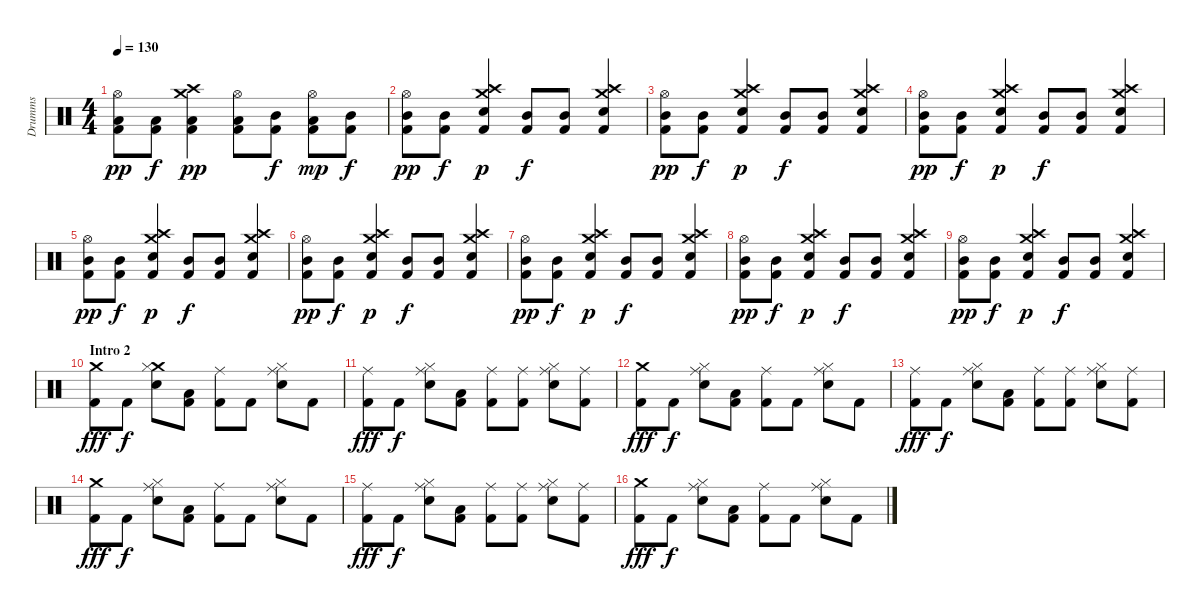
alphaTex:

\track ("Drumms" "Drumms") {instrument percussion}
\staff {score}
\articulation defaults
\ts (4 4)
\tempo 130
\clef neutral
\ks c
("Hi-Hat (open)" "Kick (hit) 2" "Low Tom (hit)").8{dy pp} ("Kick (hit) 2" "Low Tom (hit)").8{dy f} ("Crash medium (hit)" "Crash high (hit)" "Kick (hit) 2" "Low Tom (hit)").4{dy pp} ("Hi-Hat (open)" "Kick (hit) 2" "Low Tom (hit)").8 ("Kick (hit) 2" "Mid Tom (hit)").8{dy f} ("Hi-Hat (open)" "Kick (hit) 2" "Low Tom (hit)").8{dy mp} ("Kick (hit) 2" "Mid Tom (hit)").8{dy f} |
("Hi-Hat (open)" "Kick (hit) 2" "Mid Tom (hit)").8{dy pp} ("Kick (hit) 2" "Mid Tom (hit)").8{dy f} ("Crash medium (hit)" "Crash high (hit)" "Electric Snare (hit)" "Kick (hit) 2").4{dy p} ("Kick (hit) 2" "Mid Tom (hit)").8{dy f} ("Mid Tom (hit)" "Kick (hit) 2").8 ("Crash medium (hit)" "Crash high (hit)" "Electric Snare (hit)" "Kick (hit) 2").4 |
("Hi-Hat (open)" "Kick (hit) 2" "Mid Tom (hit)").8{dy pp} ("Kick (hit) 2" "Mid Tom (hit)").8{dy f} ("Crash medium (hit)" "Crash high (hit)" "Electric Snare (hit)" "Kick (hit) 2").4{dy p} ("Kick (hit) 2" "Mid Tom (hit)").8{dy f} ("Mid Tom (hit)" "Kick (hit) 2").8 ("Crash medium (hit)" "Crash high (hit)" "Electric Snare (hit)" "Kick (hit) 2").4 |
("Hi-Hat (open)" "Kick (hit) 2" "Mid Tom (hit)").8{dy pp} ("Kick (hit) 2" "Mid Tom (hit)").8{dy f} ("Crash medium (hit)" "Crash high (hit)" "Electric Snare (hit)" "Kick (hit) 2").4{dy p} ("Kick (hit) 2" "Mid Tom (hit)").8{dy f} ("Mid Tom (hit)" "Kick (hit) 2").8 ("Crash medium (hit)" "Crash high (hit)" "Electric Snare (hit)" "Kick (hit) 2").4 |
("Hi-Hat (open)" "Kick (hit) 2" "Mid Tom (hit)").8{dy pp} ("Kick (hit) 2" "Mid Tom (hit)").8{dy f} ("Crash medium (hit)" "Crash high (hit)" "Electric Snare (hit)" "Kick (hit) 2").4{dy p} ("Kick (hit) 2" "Mid Tom (hit)").8{dy f} ("Mid Tom (hit)" "Kick (hit) 2").8 ("Crash medium (hit)" "Crash high (hit)" "Electric Snare (hit)" "Kick (hit) 2").4 |
("Hi-Hat (open)" "Kick (hit) 2" "Mid Tom (hit)").8{dy pp} ("Kick (hit) 2" "Mid Tom (hit)").8{dy f} ("Crash medium (hit)" "Crash high (hit)" "Electric Snare (hit)" "Kick (hit) 2").4{dy p} ("Kick (hit) 2" "Mid Tom (hit)").8{dy f} ("Mid Tom (hit)" "Kick (hit) 2").8 ("Crash medium (hit)" "Crash high (hit)" "Electric Snare (hit)" "Kick (hit) 2").4 |
("Hi-Hat (open)" "Kick (hit) 2" "Mid Tom (hit)").8{dy pp} ("Kick (hit) 2" "Mid Tom (hit)").8{dy f} ("Crash medium (hit)" "Crash high (hit)" "Electric Snare (hit)" "Kick (hit) 2").4{dy p} ("Kick (hit) 2" "Mid Tom (hit)").8{dy f} ("Mid Tom (hit)" "Kick (hit) 2").8 ("Crash medium (hit)" "Crash high (hit)" "Electric Snare (hit)" "Kick (hit) 2").4 |
("Hi-Hat (open)" "Kick (hit) 2" "Mid Tom (hit)").8{dy pp} ("Kick (hit) 2" "Mid Tom (hit)").8{dy f} ("Crash medium (hit)" "Crash high (hit)" "Electric Snare (hit)" "Kick (hit) 2").4{dy p} ("Kick (hit) 2" "Mid Tom (hit)").8{dy f} ("Mid Tom (hit)" "Kick (hit) 2").8 ("Crash medium (hit)" "Crash high (hit)" "Electric Snare (hit)" "Kick (hit) 2").4 |
("Hi-Hat (open)" "Kick (hit) 2" "Mid Tom (hit)").8{dy pp} ("Kick (hit) 2" "Mid Tom (hit)").8{dy f} ("Crash medium (hit)" "Crash high (hit)" "Electric Snare (hit)" "Kick (hit) 2").4{dy p} ("Kick (hit) 2" "Mid Tom (hit)").8{dy f} ("Mid Tom (hit)" "Kick (hit) 2").8 ("Crash medium (hit)" "Crash high (hit)" "Electric Snare (hit)" "Kick (hit) 2").4 |
\section ("" "Intro 2")
("Crash medium (hit)" "Kick (hit) 2").8{dy fff} "Kick (hit) 2".8{dy f} ("Crash medium (hit)" "Hi-Hat (closed)" "Electric Snare (hit)").8 ("Kick (hit) 2" "Low Tom (hit)").8 ("Ride (middle)" "Kick (hit) 2").8 "Kick (hit) 2".8 ("Ride (middle)" "Hi-Hat (closed)" "Electric Snare (hit)").8 "Kick (hit) 2".8 |
("Ride (middle)" "Kick (hit) 2").8{dy fff} "Kick (hit) 2".8{dy f} ("Ride (middle)" "Hi-Hat (closed)" "Electric Snare (hit)").8 ("Kick (hit) 2" "Low Tom (hit)").8 ("Ride (middle)" "Kick (hit) 2").8 ("Ride (middle)" "Kick (hit) 2").8 ("Ride (middle)" "Hi-Hat (closed)" "Electric Snare (hit)").8 ("Ride (middle)" "Kick (hit) 2").8 |
("Crash medium (hit)" "Kick (hit) 2").8{dy fff} "Kick (hit) 2".8{dy f} ("Ride (middle)" "Hi-Hat (closed)" "Electric Snare (hit)").8 ("Kick (hit) 2" "Low Tom (hit)").8 ("Ride (middle)" "Kick (hit) 2").8 "Kick (hit) 2".8 ("Ride (middle)" "Hi-Hat (closed)" "Electric Snare (hit)").8 "Kick (hit) 2".8 |
("Ride (middle)" "Kick (hit) 2").8{dy fff} "Kick (hit) 2".8{dy f} ("Ride (middle)" "Hi-Hat (closed)" "Electric Snare (hit)").8 ("Kick (hit) 2" "Low Tom (hit)").8 ("Ride (middle)" "Kick (hit) 2").8 ("Ride (middle)" "Kick (hit) 2").8 ("Ride (middle)" "Hi-Hat (closed)" "Electric Snare (hit)").8 ("Ride (middle)" "Kick (hit) 2").8 |
("Crash medium (hit)" "Kick (hit) 2").8{dy fff} "Kick (hit) 2".8{dy f} ("Ride (middle)" "Hi-Hat (closed)" "Electric Snare (hit)").8 ("Kick (hit) 2" "Low Tom (hit)").8 ("Ride (middle)" "Kick (hit) 2").8 "Kick (hit) 2".8 ("Ride (middle)" "Hi-Hat (closed)" "Electric Snare (hit)").8 "Kick (hit) 2".8 |
("Ride (middle)" "Kick (hit) 2").8{dy fff} "Kick (hit) 2".8{dy f} ("Ride (middle)" "Hi-Hat (closed)" "Electric Snare (hit)").8 ("Kick (hit) 2" "Low Tom (hit)").8 ("Ride (middle)" "Kick (hit) 2").8 ("Ride (middle)" "Kick (hit) 2").8 ("Ride (middle)" "Hi-Hat (closed)" "Electric Snare (hit)").8 ("Ride (middle)" "Kick (hit) 2").8 |
("Crash medium (hit)" "Kick (hit) 2").8{dy fff} "Kick (hit) 2".8{dy f} ("Ride (middle)" "Hi-Hat (closed)" "Electric Snare (hit)").8 ("Kick (hit) 2" "Low Tom (hit)").8 ("Ride (middle)" "Kick (hit) 2").8 "Kick (hit) 2".8 ("Ride (middle)" "Hi-Hat (closed)" "Electric Snare (hit)").8 "Kick (hit) 2".8
